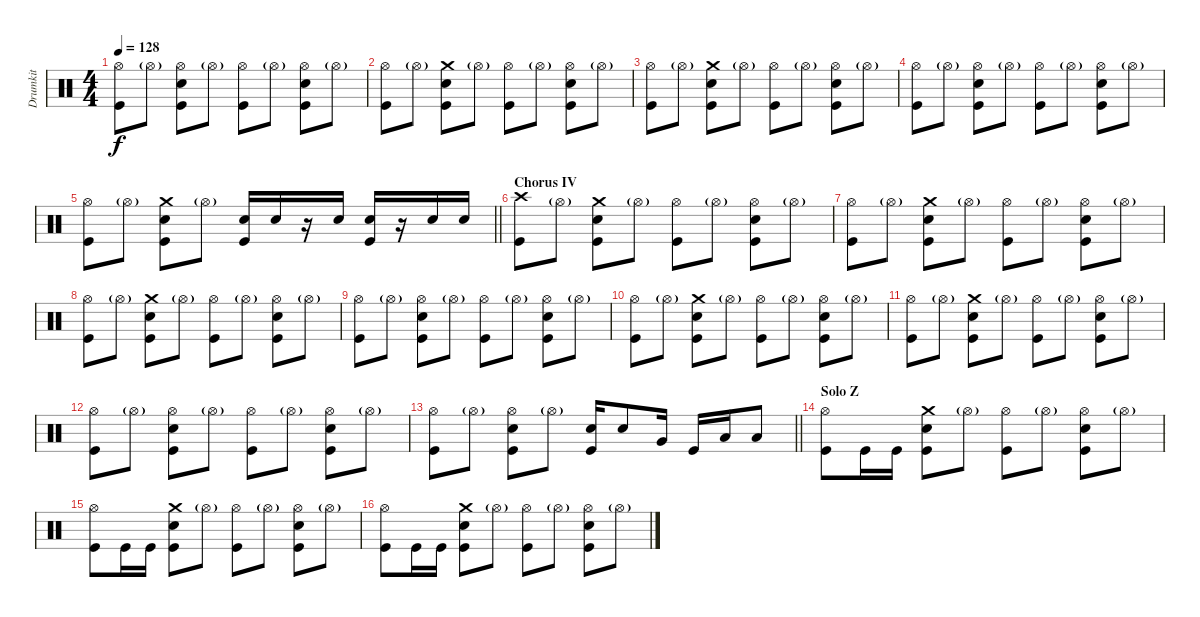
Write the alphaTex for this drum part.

\track ("Drumkit" "Drumkit") {instrument percussion}
\staff
\articulation defaults
\ts (4 4)
\tempo 128
\clef neutral
\ks c
("Hi-Hat (open)" "Kick (hit)").8{dy f} "Hi-Hat (open)"{g}.8 ("Hi-Hat (open)" "Kick (hit)" "Snare (hit) 2").8 "Hi-Hat (open)"{g}.8 ("Hi-Hat (open)" "Kick (hit)").8 "Hi-Hat (open)"{g}.8 ("Hi-Hat (open)" "Kick (hit)" "Snare (hit) 2").8 "Hi-Hat (open)"{g}.8 |
("Hi-Hat (open)" "Kick (hit)").8 "Hi-Hat (open)"{g}.8 ("Crash medium (hit)" "Kick (hit)" "Snare (hit) 2").8 "Hi-Hat (open)"{g}.8 ("Hi-Hat (open)" "Kick (hit)").8 "Hi-Hat (open)"{g}.8 ("Hi-Hat (open)" "Kick (hit)" "Snare (hit) 2").8 "Hi-Hat (open)"{g}.8 |
("Hi-Hat (open)" "Kick (hit)").8 "Hi-Hat (open)"{g}.8 ("Crash medium (hit)" "Kick (hit)" "Snare (hit) 2").8 "Hi-Hat (open)"{g}.8 ("Hi-Hat (open)" "Kick (hit)").8 "Hi-Hat (open)"{g}.8 ("Hi-Hat (open)" "Kick (hit)" "Snare (hit) 2").8 "Hi-Hat (open)"{g}.8 |
("Hi-Hat (open)" "Kick (hit)").8 "Hi-Hat (open)"{g}.8 ("Hi-Hat (open)" "Kick (hit)" "Snare (hit) 2").8 "Hi-Hat (open)"{g}.8 ("Hi-Hat (open)" "Kick (hit)").8 "Hi-Hat (open)"{g}.8 ("Hi-Hat (open)" "Kick (hit)" "Snare (hit) 2").8 "Hi-Hat (open)"{g}.8 |
\barLineRight lightlight
("Hi-Hat (open)" "Kick (hit)").8 "Hi-Hat (open)"{g}.8 ("Crash medium (hit)" "Kick (hit)" "Snare (hit) 2").8 "Hi-Hat (open)"{g}.8 ("Snare (hit) 2" "Kick (hit)").16 "Snare (hit) 2".16 r.16 "Snare (hit) 2".16 ("Snare (hit) 2" "Kick (hit)").16 r.16 "Snare (hit) 2".16 "Snare (hit) 2".16 |
\section ("" "Chorus IV")
("Crash high (hit)" "Kick (hit)").8 "Hi-Hat (open)"{g}.8 ("Crash medium (hit)" "Kick (hit)" "Snare (hit) 2").8 "Hi-Hat (open)"{g}.8 ("Hi-Hat (open)" "Kick (hit)").8 "Hi-Hat (open)"{g}.8 ("Hi-Hat (open)" "Kick (hit)" "Snare (hit) 2").8 "Hi-Hat (open)"{g}.8 |
("Hi-Hat (open)" "Kick (hit)").8 "Hi-Hat (open)"{g}.8 ("Crash medium (hit)" "Kick (hit)" "Snare (hit) 2").8 "Hi-Hat (open)"{g}.8 ("Hi-Hat (open)" "Kick (hit)").8 "Hi-Hat (open)"{g}.8 ("Hi-Hat (open)" "Kick (hit)" "Snare (hit) 2").8 "Hi-Hat (open)"{g}.8 |
("Hi-Hat (open)" "Kick (hit)").8 "Hi-Hat (open)"{g}.8 ("Crash medium (hit)" "Kick (hit)" "Snare (hit) 2").8 "Hi-Hat (open)"{g}.8 ("Hi-Hat (open)" "Kick (hit)").8 "Hi-Hat (open)"{g}.8 ("Hi-Hat (open)" "Kick (hit)" "Snare (hit) 2").8 "Hi-Hat (open)"{g}.8 |
("Hi-Hat (open)" "Kick (hit)").8 "Hi-Hat (open)"{g}.8 ("Hi-Hat (open)" "Kick (hit)" "Snare (hit) 2").8 "Hi-Hat (open)"{g}.8 ("Hi-Hat (open)" "Kick (hit)").8 "Hi-Hat (open)"{g}.8 ("Hi-Hat (open)" "Kick (hit)" "Snare (hit) 2").8 "Hi-Hat (open)"{g}.8 |
("Hi-Hat (open)" "Kick (hit)").8 "Hi-Hat (open)"{g}.8 ("Crash medium (hit)" "Kick (hit)" "Snare (hit) 2").8 "Hi-Hat (open)"{g}.8 ("Hi-Hat (open)" "Kick (hit)").8 "Hi-Hat (open)"{g}.8 ("Hi-Hat (open)" "Kick (hit)" "Snare (hit) 2").8 "Hi-Hat (open)"{g}.8 |
("Hi-Hat (open)" "Kick (hit)").8 "Hi-Hat (open)"{g}.8 ("Crash medium (hit)" "Kick (hit)" "Snare (hit) 2").8 "Hi-Hat (open)"{g}.8 ("Hi-Hat (open)" "Kick (hit)").8 "Hi-Hat (open)"{g}.8 ("Hi-Hat (open)" "Kick (hit)" "Snare (hit) 2").8 "Hi-Hat (open)"{g}.8 |
("Hi-Hat (open)" "Kick (hit)").8 "Hi-Hat (open)"{g}.8 ("Hi-Hat (open)" "Kick (hit)" "Snare (hit) 2").8 "Hi-Hat (open)"{g}.8 ("Hi-Hat (open)" "Kick (hit)").8 "Hi-Hat (open)"{g}.8 ("Hi-Hat (open)" "Kick (hit)" "Snare (hit) 2").8 "Hi-Hat (open)"{g}.8 |
\barLineRight lightlight
("Hi-Hat (open)" "Kick (hit)").8 "Hi-Hat (open)"{g}.8 ("Hi-Hat (open)" "Kick (hit)" "Snare (hit) 2").8 "Hi-Hat (open)"{g}.8 ("Snare (hit) 2" "Kick (hit)").16 "Snare (hit) 2".8 "Very Low Tom (hit)".16 "Kick (hit)".16 "Low Floor Tom (hit)".16 "Low Floor Tom (hit)".8 |
\section ("" "Solo Z")
("Hi-Hat (open)" "Kick (hit)").8 "Kick (hit)".16 "Kick (hit)".16 ("Crash medium (hit)" "Kick (hit)" "Snare (hit) 2").8 "Hi-Hat (open)"{g}.8 ("Hi-Hat (open)" "Kick (hit)").8 "Hi-Hat (open)"{g}.8 ("Hi-Hat (open)" "Kick (hit)" "Snare (hit) 2").8 "Hi-Hat (open)"{g}.8 |
("Hi-Hat (open)" "Kick (hit)").8 "Kick (hit)".16 "Kick (hit)".16 ("Crash medium (hit)" "Kick (hit)" "Snare (hit) 2").8 "Hi-Hat (open)"{g}.8 ("Hi-Hat (open)" "Kick (hit)").8 "Hi-Hat (open)"{g}.8 ("Hi-Hat (open)" "Kick (hit)" "Snare (hit) 2").8 "Hi-Hat (open)"{g}.8 |
("Hi-Hat (open)" "Kick (hit)").8 "Kick (hit)".16 "Kick (hit)".16 ("Crash medium (hit)" "Kick (hit)" "Snare (hit) 2").8 "Hi-Hat (open)"{g}.8 ("Hi-Hat (open)" "Kick (hit)").8 "Hi-Hat (open)"{g}.8 ("Hi-Hat (open)" "Kick (hit)" "Snare (hit) 2").8 "Hi-Hat (open)"{g}.8
